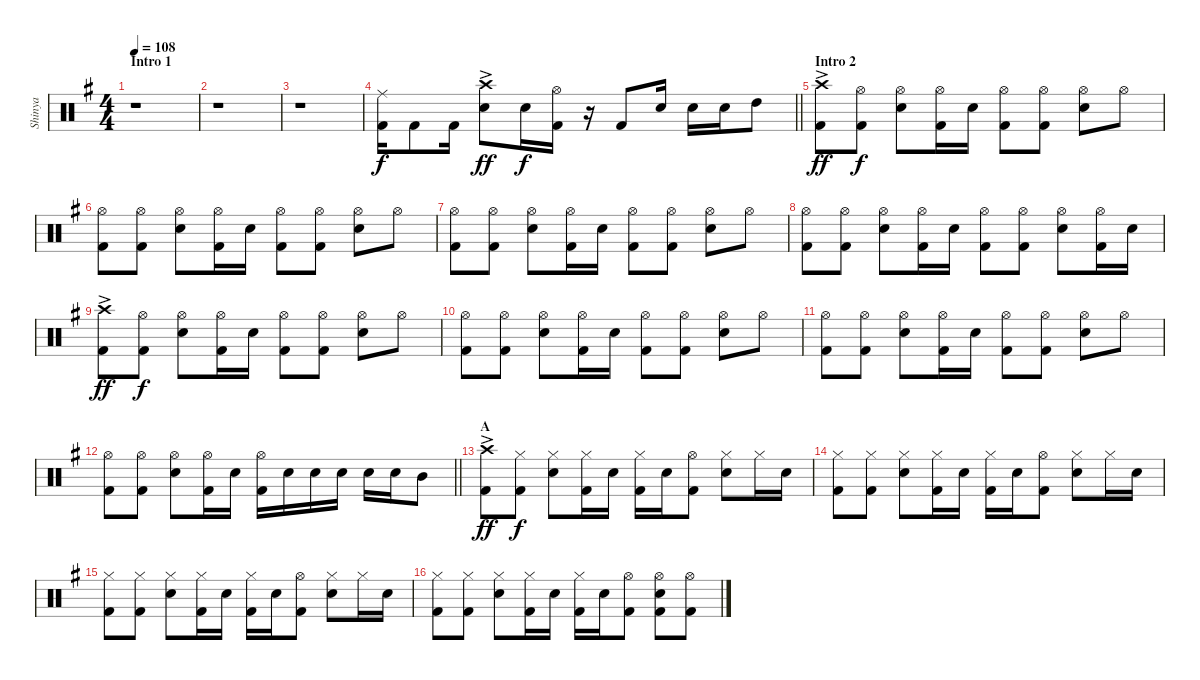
\track ("Shinya" "Shinya") {instrument percussion}
\staff {score}
\articulation defaults
\ts (4 4)
\section ("" "Intro 1")
\tempo 108
\clef neutral
\ks eminor
r.1{dy f} |
r.1 |
r.1 |
\barLineRight lightlight
("Ride (middle)" "Kick (hit) 2").16 "Kick (hit) 2".8 "Kick (hit) 2".16 ("Crash high (hit)"{ac} "Snare (hit) 2").8{dy ff} "Snare (hit) 2".16{dy f} ("Hi-Hat (open)" "Kick (hit) 2").16 r.16 "Kick (hit) 2".8 "Snare (hit) 2".16 "Snare (hit) 2".16 "Snare (hit) 2".16 "High Tom (hit)".8 |
\section ("" "Intro 2")
("Crash high (hit)"{ac} "Kick (hit) 2").8{dy ff} ("Hi-Hat (open)" "Kick (hit) 2").8{dy f} ("Hi-Hat (open)" "Snare (hit) 2").8 ("Hi-Hat (open)" "Kick (hit) 2").16 "Snare (hit) 2".16 ("Hi-Hat (open)" "Kick (hit) 2").8 ("Hi-Hat (open)" "Kick (hit) 2").8 ("Hi-Hat (open)" "Snare (hit) 2").8 "Hi-Hat (open)".8 |
("Hi-Hat (open)" "Kick (hit) 2").8 ("Hi-Hat (open)" "Kick (hit) 2").8 ("Hi-Hat (open)" "Snare (hit) 2").8 ("Hi-Hat (open)" "Kick (hit) 2").16 "Snare (hit) 2".16 ("Hi-Hat (open)" "Kick (hit) 2").8 ("Hi-Hat (open)" "Kick (hit) 2").8 ("Hi-Hat (open)" "Snare (hit) 2").8 "Hi-Hat (open)".8 |
("Hi-Hat (open)" "Kick (hit) 2").8 ("Hi-Hat (open)" "Kick (hit) 2").8 ("Hi-Hat (open)" "Snare (hit) 2").8 ("Hi-Hat (open)" "Kick (hit) 2").16 "Snare (hit) 2".16 ("Hi-Hat (open)" "Kick (hit) 2").8 ("Hi-Hat (open)" "Kick (hit) 2").8 ("Hi-Hat (open)" "Snare (hit) 2").8 "Hi-Hat (open)".8 |
("Hi-Hat (open)" "Kick (hit) 2").8 ("Hi-Hat (open)" "Kick (hit) 2").8 ("Hi-Hat (open)" "Snare (hit) 2").8 ("Hi-Hat (open)" "Kick (hit) 2").16 "Snare (hit) 2".16 ("Hi-Hat (open)" "Kick (hit) 2").8 ("Hi-Hat (open)" "Kick (hit) 2").8 ("Hi-Hat (open)" "Snare (hit) 2").8 ("Hi-Hat (open)" "Kick (hit) 2").16 "Snare (hit) 2".16 |
("Crash high (hit)"{ac} "Kick (hit) 2").8{dy ff} ("Hi-Hat (open)" "Kick (hit) 2").8{dy f} ("Hi-Hat (open)" "Snare (hit) 2").8 ("Hi-Hat (open)" "Kick (hit) 2").16 "Snare (hit) 2".16 ("Hi-Hat (open)" "Kick (hit) 2").8 ("Hi-Hat (open)" "Kick (hit) 2").8 ("Hi-Hat (open)" "Snare (hit) 2").8 "Hi-Hat (open)".8 |
("Hi-Hat (open)" "Kick (hit) 2").8 ("Hi-Hat (open)" "Kick (hit) 2").8 ("Hi-Hat (open)" "Snare (hit) 2").8 ("Hi-Hat (open)" "Kick (hit) 2").16 "Snare (hit) 2".16 ("Hi-Hat (open)" "Kick (hit) 2").8 ("Hi-Hat (open)" "Kick (hit) 2").8 ("Hi-Hat (open)" "Snare (hit) 2").8 "Hi-Hat (open)".8 |
("Hi-Hat (open)" "Kick (hit) 2").8 ("Hi-Hat (open)" "Kick (hit) 2").8 ("Hi-Hat (open)" "Snare (hit) 2").8 ("Hi-Hat (open)" "Kick (hit) 2").16 "Snare (hit) 2".16 ("Hi-Hat (open)" "Kick (hit) 2").8 ("Hi-Hat (open)" "Kick (hit) 2").8 ("Hi-Hat (open)" "Snare (hit) 2").8 "Hi-Hat (open)".8 |
\barLineRight lightlight
("Hi-Hat (open)" "Kick (hit) 2").8 ("Hi-Hat (open)" "Kick (hit) 2").8 ("Hi-Hat (open)" "Snare (hit) 2").8 ("Hi-Hat (open)" "Kick (hit) 2").16 "Snare (hit) 2".16 ("Hi-Hat (open)" "Kick (hit) 2").16 "Snare (hit) 2".16 "Snare (hit) 2".16 "Snare (hit) 2".16 "Snare (hit) 2".16 "Snare (hit) 2".16 "Mid Tom (hit)".8 |
\section ("" "A")
("Crash high (hit)"{ac} "Kick (hit) 2").8{dy ff} ("Hi-Hat (closed)" "Kick (hit) 2").8{dy f} ("Hi-Hat (closed)" "Snare (hit) 2").8 ("Hi-Hat (closed)" "Kick (hit) 2").16 "Snare (hit) 2".16 ("Hi-Hat (closed)" "Kick (hit) 2").16 "Snare (hit) 2".16 ("Hi-Hat (open)" "Kick (hit) 2").8 ("Hi-Hat (closed)" "Snare (hit) 2").8 "Hi-Hat (closed)".16 "Snare (hit) 2".16 |
("Hi-Hat (closed)" "Kick (hit) 2").8 ("Hi-Hat (closed)" "Kick (hit) 2").8 ("Hi-Hat (closed)" "Snare (hit) 2").8 ("Hi-Hat (closed)" "Kick (hit) 2").16 "Snare (hit) 2".16 ("Hi-Hat (closed)" "Kick (hit) 2").16 "Snare (hit) 2".16 ("Hi-Hat (open)" "Kick (hit) 2").8 ("Hi-Hat (closed)" "Snare (hit) 2").8 "Hi-Hat (closed)".16 "Snare (hit) 2".16 |
("Hi-Hat (closed)" "Kick (hit) 2").8 ("Hi-Hat (closed)" "Kick (hit) 2").8 ("Hi-Hat (closed)" "Snare (hit) 2").8 ("Hi-Hat (closed)" "Kick (hit) 2").16 "Snare (hit) 2".16 ("Hi-Hat (closed)" "Kick (hit) 2").16 "Snare (hit) 2".16 ("Hi-Hat (open)" "Kick (hit) 2").8 ("Hi-Hat (closed)" "Snare (hit) 2").8 "Hi-Hat (closed)".16 "Snare (hit) 2".16 |
("Hi-Hat (closed)" "Kick (hit) 2").8 ("Hi-Hat (closed)" "Kick (hit) 2").8 ("Hi-Hat (closed)" "Snare (hit) 2").8 ("Hi-Hat (closed)" "Kick (hit) 2").16 "Snare (hit) 2".16 ("Hi-Hat (closed)" "Kick (hit) 2").16 "Snare (hit) 2".16 ("Hi-Hat (open)" "Kick (hit) 2").8 ("Hi-Hat (open)" "Snare (hit) 2" "Kick (hit) 2").8 ("Hi-Hat (open)" "Kick (hit) 2").8
